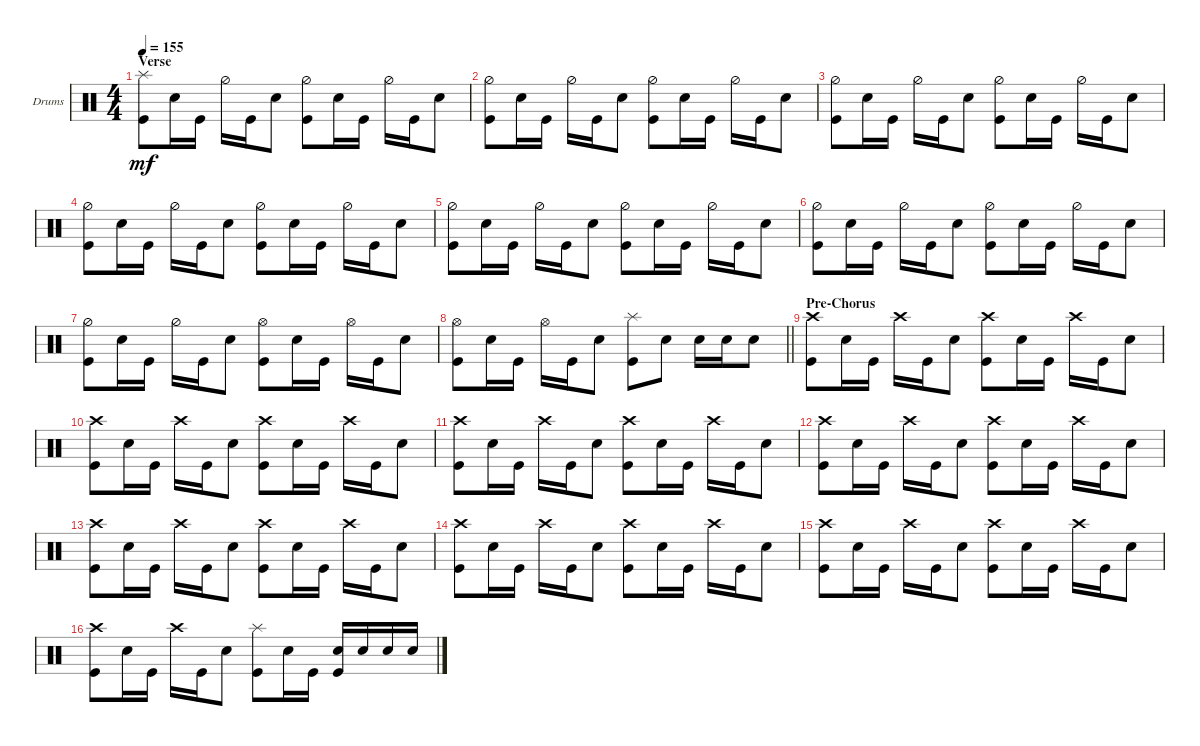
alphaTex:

\defaultSystemsLayout 4
\bracketExtendMode groupsimilarinstruments
\firstSystemTrackNameOrientation horizontal
\otherSystemsTrackNameOrientation horizontal
\track ("Drums" "Drums") {instrument percussion}
\staff {score}
\articulation defaults
\ts (4 4)
\section ("" "Verse")
\tempo 155
\clef neutral
\ks c
("Kick (hit)" "Splash (hit)").8{dy mf} "Snare (hit) 2".16 "Kick (hit)".16 "Hi-Hat (half)".16 "Kick (hit)".16 "Snare (hit) 2".8 ("Kick (hit)" "Hi-Hat (half)").8 "Snare (hit) 2".16 "Kick (hit)".16 "Hi-Hat (half)".16 "Kick (hit)".16 "Snare (hit) 2".8 |
("Kick (hit)" "Hi-Hat (half)").8 "Snare (hit) 2".16 "Kick (hit)".16 "Hi-Hat (half)".16 "Kick (hit)".16 "Snare (hit) 2".8 ("Kick (hit)" "Hi-Hat (half)").8 "Snare (hit) 2".16 "Kick (hit)".16 "Hi-Hat (half)".16 "Kick (hit)".16 "Snare (hit) 2".8 |
("Kick (hit)" "Hi-Hat (half)").8 "Snare (hit) 2".16 "Kick (hit)".16 "Hi-Hat (half)".16 "Kick (hit)".16 "Snare (hit) 2".8 ("Kick (hit)" "Hi-Hat (half)").8 "Snare (hit) 2".16 "Kick (hit)".16 "Hi-Hat (half)".16 "Kick (hit)".16 "Snare (hit) 2".8 |
("Kick (hit)" "Hi-Hat (half)").8 "Snare (hit) 2".16 "Kick (hit)".16 "Hi-Hat (half)".16 "Kick (hit)".16 "Snare (hit) 2".8 ("Kick (hit)" "Hi-Hat (half)").8 "Snare (hit) 2".16 "Kick (hit)".16 "Hi-Hat (half)".16 "Kick (hit)".16 "Snare (hit) 2".8 |
("Kick (hit)" "Hi-Hat (half)").8 "Snare (hit) 2".16 "Kick (hit)".16 "Hi-Hat (half)".16 "Kick (hit)".16 "Snare (hit) 2".8 ("Kick (hit)" "Hi-Hat (half)").8 "Snare (hit) 2".16 "Kick (hit)".16 "Hi-Hat (half)".16 "Kick (hit)".16 "Snare (hit) 2".8 |
("Kick (hit)" "Hi-Hat (half)").8 "Snare (hit) 2".16 "Kick (hit)".16 "Hi-Hat (half)".16 "Kick (hit)".16 "Snare (hit) 2".8 ("Kick (hit)" "Hi-Hat (half)").8 "Snare (hit) 2".16 "Kick (hit)".16 "Hi-Hat (half)".16 "Kick (hit)".16 "Snare (hit) 2".8 |
("Kick (hit)" "Hi-Hat (half)").8 "Snare (hit) 2".16 "Kick (hit)".16 "Hi-Hat (half)".16 "Kick (hit)".16 "Snare (hit) 2".8 ("Kick (hit)" "Hi-Hat (open)").8 "Snare (hit) 2".16 "Kick (hit)".16 "Hi-Hat (open)".16 "Kick (hit)".16 "Snare (hit) 2".8 |
\barLineRight lightlight
("Kick (hit)" "Hi-Hat (open)").8 "Snare (hit) 2".16 "Kick (hit)".16 "Hi-Hat (open)".16 "Kick (hit)".16 "Snare (hit) 2".8 ("Kick (hit)" "Splash (hit)").8 "Snare (hit) 2".8 "Snare (hit) 2".16 "Snare (hit) 2".16 "Snare (hit) 2".8 |
\section ("" "Pre-Chorus")
("Kick (hit)" "Crash high (hit)").8 "Snare (hit) 2".16 "Kick (hit)".16 "Crash high (hit)".16 "Kick (hit)".16 "Snare (hit) 2".8 ("Kick (hit)" "Crash high (hit)").8 "Snare (hit) 2".16 "Kick (hit)".16 "Crash high (hit)".16 "Kick (hit)".16 "Snare (hit) 2".8 |
("Kick (hit)" "Crash high (hit)").8 "Snare (hit) 2".16 "Kick (hit)".16 "Crash high (hit)".16 "Kick (hit)".16 "Snare (hit) 2".8 ("Kick (hit)" "Crash high (hit)").8 "Snare (hit) 2".16 "Kick (hit)".16 "Crash high (hit)".16 "Kick (hit)".16 "Snare (hit) 2".8 |
("Kick (hit)" "Crash high (hit)").8 "Snare (hit) 2".16 "Kick (hit)".16 "Crash high (hit)".16 "Kick (hit)".16 "Snare (hit) 2".8 ("Kick (hit)" "Crash high (hit)").8 "Snare (hit) 2".16 "Kick (hit)".16 "Crash high (hit)".16 "Kick (hit)".16 "Snare (hit) 2".8 |
("Kick (hit)" "Crash high (hit)").8 "Snare (hit) 2".16 "Kick (hit)".16 "Crash high (hit)".16 "Kick (hit)".16 "Snare (hit) 2".8 ("Kick (hit)" "Crash high (hit)").8 "Snare (hit) 2".16 "Kick (hit)".16 "Crash high (hit)".16 "Kick (hit)".16 "Snare (hit) 2".8 |
("Kick (hit)" "Crash high (hit)").8 "Snare (hit) 2".16 "Kick (hit)".16 "Crash high (hit)".16 "Kick (hit)".16 "Snare (hit) 2".8 ("Kick (hit)" "Crash high (hit)").8 "Snare (hit) 2".16 "Kick (hit)".16 "Crash high (hit)".16 "Kick (hit)".16 "Snare (hit) 2".8 |
("Kick (hit)" "Crash high (hit)").8 "Snare (hit) 2".16 "Kick (hit)".16 "Crash high (hit)".16 "Kick (hit)".16 "Snare (hit) 2".8 ("Kick (hit)" "Crash high (hit)").8 "Snare (hit) 2".16 "Kick (hit)".16 "Crash high (hit)".16 "Kick (hit)".16 "Snare (hit) 2".8 |
("Kick (hit)" "Crash high (hit)").8 "Snare (hit) 2".16 "Kick (hit)".16 "Crash high (hit)".16 "Kick (hit)".16 "Snare (hit) 2".8 ("Kick (hit)" "Crash high (hit)").8 "Snare (hit) 2".16 "Kick (hit)".16 "Crash high (hit)".16 "Kick (hit)".16 "Snare (hit) 2".8 |
("Kick (hit)" "Crash high (hit)").8 "Snare (hit) 2".16 "Kick (hit)".16 "Crash high (hit)".16 "Kick (hit)".16 "Snare (hit) 2".8 ("Kick (hit)" "Splash (hit)").8 "Snare (hit) 2".16 "Kick (hit)".16 ("Kick (hit)" "Snare (hit) 2").16 "Snare (hit) 2".16 "Snare (hit) 2".16 "Snare (hit) 2".16
